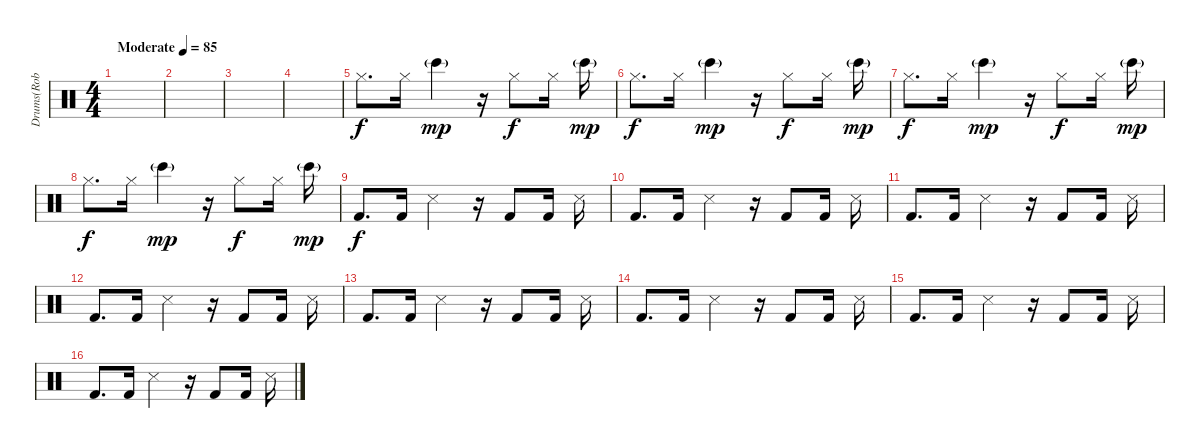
\track ("Drums(Rob Bourdon)(Right hand)" "Drums(Rob ") {instrument percussion}
\staff {score}
\articulation defaults
\ts (4 4)
\tempo (85 "Moderate")
\clef neutral
\ks c
|
|
|
|
"Hi-Hat (closed)".8{d} "Hi-Hat (closed)".16 "Bongo High (hit)"{g}.4{dy mp} r.16 "Hi-Hat (closed)".8{dy f} "Hi-Hat (closed)".16 "Bongo High (hit)"{g}.16{dy mp} |
"Hi-Hat (closed)".8{d dy f} "Hi-Hat (closed)".16 "Bongo High (hit)"{g}.4{dy mp} r.16 "Hi-Hat (closed)".8{dy f} "Hi-Hat (closed)".16 "Bongo High (hit)"{g}.16{dy mp} |
"Hi-Hat (closed)".8{d dy f} "Hi-Hat (closed)".16 "Bongo High (hit)"{g}.4{dy mp} r.16 "Hi-Hat (closed)".8{dy f} "Hi-Hat (closed)".16 "Bongo High (hit)"{g}.16{dy mp} |
"Hi-Hat (closed)".8{d dy f} "Hi-Hat (closed)".16 "Bongo High (hit)"{g}.4{dy mp} r.16 "Hi-Hat (closed)".8{dy f} "Hi-Hat (closed)".16 "Bongo High (hit)"{g}.16{dy mp} |
"Kick (hit) 2".8{d dy f volume 16} "Kick (hit) 2".16 "Snare (side stick) 3".4 r.16 "Kick (hit) 2".8 "Kick (hit) 2".16 "Snare (side stick) 3".16 |
"Kick (hit) 2".8{d} "Kick (hit) 2".16 "Snare (side stick) 3".4 r.16 "Kick (hit) 2".8 "Kick (hit) 2".16 "Snare (side stick) 3".16 |
"Kick (hit) 2".8{d} "Kick (hit) 2".16 "Snare (side stick) 3".4 r.16 "Kick (hit) 2".8 "Kick (hit) 2".16 "Snare (side stick) 3".16 |
"Kick (hit) 2".8{d} "Kick (hit) 2".16 "Snare (side stick) 3".4 r.16 "Kick (hit) 2".8 "Kick (hit) 2".16 "Snare (side stick) 3".16 |
"Kick (hit) 2".8{d} "Kick (hit) 2".16 "Snare (side stick) 3".4 r.16 "Kick (hit) 2".8 "Kick (hit) 2".16 "Snare (side stick) 3".16 |
"Kick (hit) 2".8{d} "Kick (hit) 2".16 "Snare (side stick) 3".4 r.16 "Kick (hit) 2".8 "Kick (hit) 2".16 "Snare (side stick) 3".16 |
"Kick (hit) 2".8{d} "Kick (hit) 2".16 "Snare (side stick) 3".4 r.16 "Kick (hit) 2".8 "Kick (hit) 2".16 "Snare (side stick) 3".16 |
"Kick (hit) 2".8{d} "Kick (hit) 2".16 "Snare (side stick) 3".4 r.16 "Kick (hit) 2".8 "Kick (hit) 2".16 "Snare (side stick) 3".16
